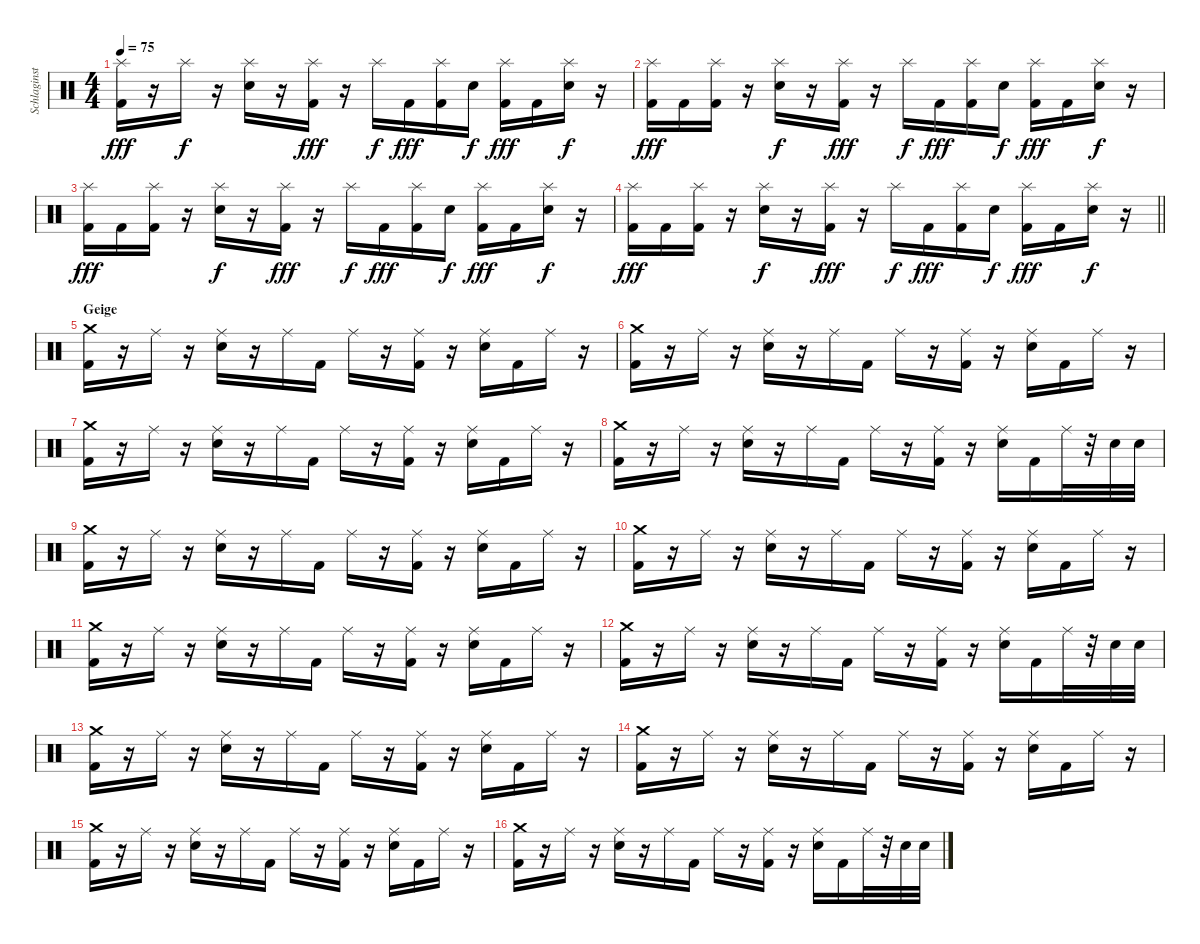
\track ("Schlaginstrumente - Auswahl" "Schlaginst") {instrument percussion}
\staff {score}
\articulation defaults
\ts (4 4)
\tempo 75
\clef neutral
\ks c
("Splash (hit)" "Kick (hit) 2").16{dy fff} r.16 "Splash (hit)".16{dy f} r.16 ("Splash (hit)" "Electric Snare (hit)").16 r.16 ("Splash (hit)" "Kick (hit) 2").16{dy fff} r.16 "Splash (hit)".16{dy f} "Kick (hit) 2".16{dy fff} ("Splash (hit)" "Kick (hit) 2").16 "Electric Snare (hit)".16{dy f} ("Splash (hit)" "Kick (hit) 2").16{dy fff} "Kick (hit) 2".16 ("Splash (hit)" "Electric Snare (hit)").16{dy f} r.16 |
("Splash (hit)" "Kick (hit) 2").16{dy fff} "Kick (hit) 2".16 ("Splash (hit)" "Kick (hit) 2").16 r.16 ("Splash (hit)" "Electric Snare (hit)").16{dy f} r.16 ("Splash (hit)" "Kick (hit) 2").16{dy fff} r.16 "Splash (hit)".16{dy f} "Kick (hit) 2".16{dy fff} ("Splash (hit)" "Kick (hit) 2").16 "Electric Snare (hit)".16{dy f} ("Splash (hit)" "Kick (hit) 2").16{dy fff} "Kick (hit) 2".16 ("Splash (hit)" "Electric Snare (hit)").16{dy f} r.16 |
("Splash (hit)" "Kick (hit) 2").16{dy fff} "Kick (hit) 2".16 ("Splash (hit)" "Kick (hit) 2").16 r.16 ("Splash (hit)" "Electric Snare (hit)").16{dy f} r.16 ("Splash (hit)" "Kick (hit) 2").16{dy fff} r.16 "Splash (hit)".16{dy f} "Kick (hit) 2".16{dy fff} ("Splash (hit)" "Kick (hit) 2").16 "Electric Snare (hit)".16{dy f} ("Splash (hit)" "Kick (hit) 2").16{dy fff} "Kick (hit) 2".16 ("Splash (hit)" "Electric Snare (hit)").16{dy f} r.16 |
\barLineRight lightlight
("Splash (hit)" "Kick (hit) 2").16{dy fff} "Kick (hit) 2".16 ("Splash (hit)" "Kick (hit) 2").16 r.16 ("Splash (hit)" "Electric Snare (hit)").16{dy f} r.16 ("Splash (hit)" "Kick (hit) 2").16{dy fff} r.16 "Splash (hit)".16{dy f} "Kick (hit) 2".16{dy fff} ("Splash (hit)" "Kick (hit) 2").16 "Electric Snare (hit)".16{dy f} ("Splash (hit)" "Kick (hit) 2").16{dy fff} "Kick (hit) 2".16 ("Splash (hit)" "Electric Snare (hit)").16{dy f} r.16 |
\section ("" "Geige")
("Crash medium (hit)" "Kick (hit) 2").16 r.16 "Ride (middle)".16 r.16 ("Ride (middle)" "Electric Snare (hit)").16 r.16 "Ride (middle)".16 "Kick (hit) 2".16 "Ride (middle)".16 r.16 ("Ride (middle)" "Kick (hit) 2").16 r.16 ("Ride (middle)" "Electric Snare (hit)").16 "Kick (hit) 2".16 "Ride (middle)".16 r.16 |
("Crash medium (hit)" "Kick (hit) 2").16 r.16 "Ride (middle)".16 r.16 ("Ride (middle)" "Electric Snare (hit)").16 r.16 "Ride (middle)".16 "Kick (hit) 2".16 "Ride (middle)".16 r.16 ("Ride (middle)" "Kick (hit) 2").16 r.16 ("Ride (middle)" "Electric Snare (hit)").16 "Kick (hit) 2".16 "Ride (middle)".16 r.16 |
("Crash medium (hit)" "Kick (hit) 2").16 r.16 "Ride (middle)".16 r.16 ("Ride (middle)" "Electric Snare (hit)").16 r.16 "Ride (middle)".16 "Kick (hit) 2".16 "Ride (middle)".16 r.16 ("Ride (middle)" "Kick (hit) 2").16 r.16 ("Ride (middle)" "Electric Snare (hit)").16 "Kick (hit) 2".16 "Ride (middle)".16 r.16 |
("Crash medium (hit)" "Kick (hit) 2").16 r.16 "Ride (middle)".16 r.16 ("Ride (middle)" "Electric Snare (hit)").16 r.16 "Ride (middle)".16 "Kick (hit) 2".16 "Ride (middle)".16 r.16 ("Ride (middle)" "Kick (hit) 2").16 r.16 ("Ride (middle)" "Electric Snare (hit)").16 "Kick (hit) 2".16 "Ride (middle)".32 r.32 "Electric Snare (hit)".32 "Electric Snare (hit)".32 |
("Crash medium (hit)" "Kick (hit) 2").16 r.16 "Ride (middle)".16 r.16 ("Ride (middle)" "Electric Snare (hit)").16 r.16 "Ride (middle)".16 "Kick (hit) 2".16 "Ride (middle)".16 r.16 ("Ride (middle)" "Kick (hit) 2").16 r.16 ("Ride (middle)" "Electric Snare (hit)").16 "Kick (hit) 2".16 "Ride (middle)".16 r.16 |
("Crash medium (hit)" "Kick (hit) 2").16 r.16 "Ride (middle)".16 r.16 ("Ride (middle)" "Electric Snare (hit)").16 r.16 "Ride (middle)".16 "Kick (hit) 2".16 "Ride (middle)".16 r.16 ("Ride (middle)" "Kick (hit) 2").16 r.16 ("Ride (middle)" "Electric Snare (hit)").16 "Kick (hit) 2".16 "Ride (middle)".16 r.16 |
("Crash medium (hit)" "Kick (hit) 2").16 r.16 "Ride (middle)".16 r.16 ("Ride (middle)" "Electric Snare (hit)").16 r.16 "Ride (middle)".16 "Kick (hit) 2".16 "Ride (middle)".16 r.16 ("Ride (middle)" "Kick (hit) 2").16 r.16 ("Ride (middle)" "Electric Snare (hit)").16 "Kick (hit) 2".16 "Ride (middle)".16 r.16 |
("Crash medium (hit)" "Kick (hit) 2").16 r.16 "Ride (middle)".16 r.16 ("Ride (middle)" "Electric Snare (hit)").16 r.16 "Ride (middle)".16 "Kick (hit) 2".16 "Ride (middle)".16 r.16 ("Ride (middle)" "Kick (hit) 2").16 r.16 ("Ride (middle)" "Electric Snare (hit)").16 "Kick (hit) 2".16 "Ride (middle)".32 r.32 "Electric Snare (hit)".32 "Electric Snare (hit)".32 |
("Crash medium (hit)" "Kick (hit) 2").16 r.16 "Ride (middle)".16 r.16 ("Ride (middle)" "Electric Snare (hit)").16 r.16 "Ride (middle)".16 "Kick (hit) 2".16 "Ride (middle)".16 r.16 ("Ride (middle)" "Kick (hit) 2").16 r.16 ("Ride (middle)" "Electric Snare (hit)").16 "Kick (hit) 2".16 "Ride (middle)".16 r.16 |
("Crash medium (hit)" "Kick (hit) 2").16 r.16 "Ride (middle)".16 r.16 ("Ride (middle)" "Electric Snare (hit)").16 r.16 "Ride (middle)".16 "Kick (hit) 2".16 "Ride (middle)".16 r.16 ("Ride (middle)" "Kick (hit) 2").16 r.16 ("Ride (middle)" "Electric Snare (hit)").16 "Kick (hit) 2".16 "Ride (middle)".16 r.16 |
("Crash medium (hit)" "Kick (hit) 2").16 r.16 "Ride (middle)".16 r.16 ("Ride (middle)" "Electric Snare (hit)").16 r.16 "Ride (middle)".16 "Kick (hit) 2".16 "Ride (middle)".16 r.16 ("Ride (middle)" "Kick (hit) 2").16 r.16 ("Ride (middle)" "Electric Snare (hit)").16 "Kick (hit) 2".16 "Ride (middle)".16 r.16 |
("Crash medium (hit)" "Kick (hit) 2").16 r.16 "Ride (middle)".16 r.16 ("Ride (middle)" "Electric Snare (hit)").16 r.16 "Ride (middle)".16 "Kick (hit) 2".16 "Ride (middle)".16 r.16 ("Ride (middle)" "Kick (hit) 2").16 r.16 ("Ride (middle)" "Electric Snare (hit)").16 "Kick (hit) 2".16 "Ride (middle)".32 r.32 "Electric Snare (hit)".32 "Electric Snare (hit)".32
